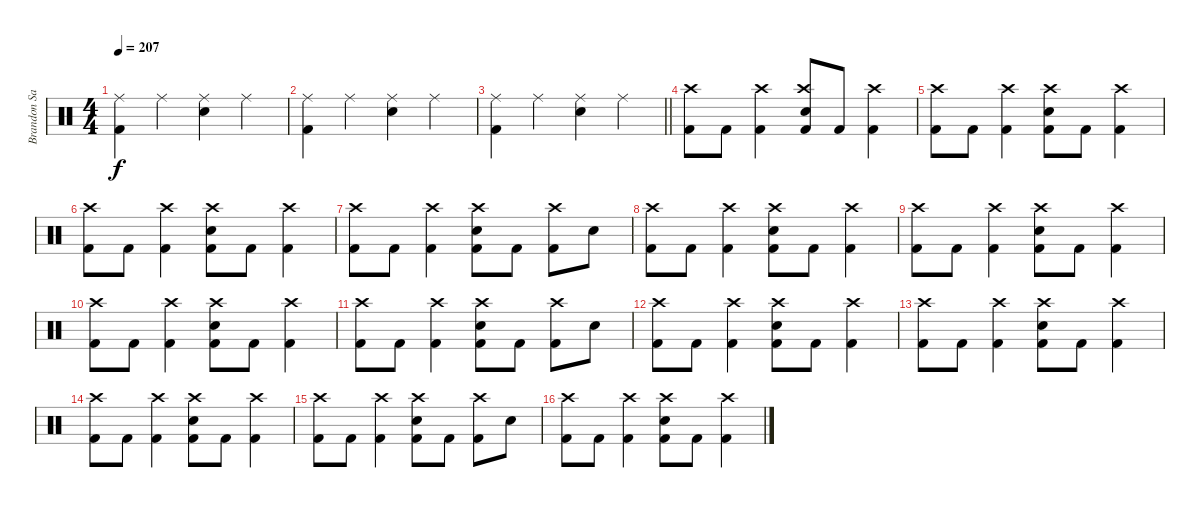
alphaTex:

\track ("Brandon Saller" "Brandon Sa") {instrument percussion}
\staff {score}
\articulation defaults
\ts (4 4)
\tempo 207
\clef neutral
\ks c
("Ride (middle)" "Kick (hit) 2").4{dy f} "Ride (middle)".4 ("Ride (middle)" "Electric Snare (hit)").4 "Ride (middle)".4 |
("Ride (middle)" "Kick (hit) 2").4 "Ride (middle)".4 ("Ride (middle)" "Electric Snare (hit)").4 "Ride (middle)".4 |
\barLineRight lightlight
("Ride (middle)" "Kick (hit) 2").4 "Ride (middle)".4 ("Ride (middle)" "Electric Snare (hit)").4 "Ride (middle)".4 |
("Crash high (hit)" "Kick (hit) 2").8 "Kick (hit) 2".8 ("Crash high (hit)" "Kick (hit) 2").4 ("Crash high (hit)" "Snare (hit) 2" "Kick (hit) 2").8 "Kick (hit) 2".8 ("Crash high (hit)" "Kick (hit) 2").4 |
("Crash high (hit)" "Kick (hit) 2").8 "Kick (hit) 2".8 ("Crash high (hit)" "Kick (hit) 2").4 ("Crash high (hit)" "Electric Snare (hit)" "Kick (hit) 2").8 "Kick (hit) 2".8 ("Crash high (hit)" "Kick (hit) 2").4 |
("Crash high (hit)" "Kick (hit) 2").8 "Kick (hit) 2".8 ("Crash high (hit)" "Kick (hit) 2").4 ("Crash high (hit)" "Electric Snare (hit)" "Kick (hit) 2").8 "Kick (hit) 2".8 ("Crash high (hit)" "Kick (hit) 2").4 |
("Crash high (hit)" "Kick (hit) 2").8 "Kick (hit) 2".8 ("Crash high (hit)" "Kick (hit) 2").4 ("Crash high (hit)" "Electric Snare (hit)" "Kick (hit) 2").8 "Kick (hit) 2".8 ("Crash high (hit)" "Kick (hit) 2").8 "Electric Snare (hit)".8 |
("Crash high (hit)" "Kick (hit) 2").8 "Kick (hit) 2".8 ("Crash high (hit)" "Kick (hit) 2").4 ("Crash high (hit)" "Electric Snare (hit)" "Kick (hit) 2").8 "Kick (hit) 2".8 ("Crash high (hit)" "Kick (hit) 2").4 |
("Crash high (hit)" "Kick (hit) 2").8 "Kick (hit) 2".8 ("Crash high (hit)" "Kick (hit) 2").4 ("Crash high (hit)" "Electric Snare (hit)" "Kick (hit) 2").8 "Kick (hit) 2".8 ("Crash high (hit)" "Kick (hit) 2").4 |
("Crash high (hit)" "Kick (hit) 2").8 "Kick (hit) 2".8 ("Crash high (hit)" "Kick (hit) 2").4 ("Crash high (hit)" "Electric Snare (hit)" "Kick (hit) 2").8 "Kick (hit) 2".8 ("Crash high (hit)" "Kick (hit) 2").4 |
("Crash high (hit)" "Kick (hit) 2").8 "Kick (hit) 2".8 ("Crash high (hit)" "Kick (hit) 2").4 ("Crash high (hit)" "Electric Snare (hit)" "Kick (hit) 2").8 "Kick (hit) 2".8 ("Crash high (hit)" "Kick (hit) 2").8 "Electric Snare (hit)".8 |
("Crash high (hit)" "Kick (hit) 2").8 "Kick (hit) 2".8 ("Crash high (hit)" "Kick (hit) 2").4 ("Crash high (hit)" "Electric Snare (hit)" "Kick (hit) 2").8 "Kick (hit) 2".8 ("Crash high (hit)" "Kick (hit) 2").4 |
("Crash high (hit)" "Kick (hit) 2").8 "Kick (hit) 2".8 ("Crash high (hit)" "Kick (hit) 2").4 ("Crash high (hit)" "Electric Snare (hit)" "Kick (hit) 2").8 "Kick (hit) 2".8 ("Crash high (hit)" "Kick (hit) 2").4 |
("Crash high (hit)" "Kick (hit) 2").8 "Kick (hit) 2".8 ("Crash high (hit)" "Kick (hit) 2").4 ("Crash high (hit)" "Electric Snare (hit)" "Kick (hit) 2").8 "Kick (hit) 2".8 ("Crash high (hit)" "Kick (hit) 2").4 |
("Crash high (hit)" "Kick (hit) 2").8 "Kick (hit) 2".8 ("Crash high (hit)" "Kick (hit) 2").4 ("Crash high (hit)" "Electric Snare (hit)" "Kick (hit) 2").8 "Kick (hit) 2".8 ("Crash high (hit)" "Kick (hit) 2").8 "Electric Snare (hit)".8 |
("Crash high (hit)" "Kick (hit) 2").8 "Kick (hit) 2".8 ("Crash high (hit)" "Kick (hit) 2").4 ("Crash high (hit)" "Electric Snare (hit)" "Kick (hit) 2").8 "Kick (hit) 2".8 ("Crash high (hit)" "Kick (hit) 2").4
